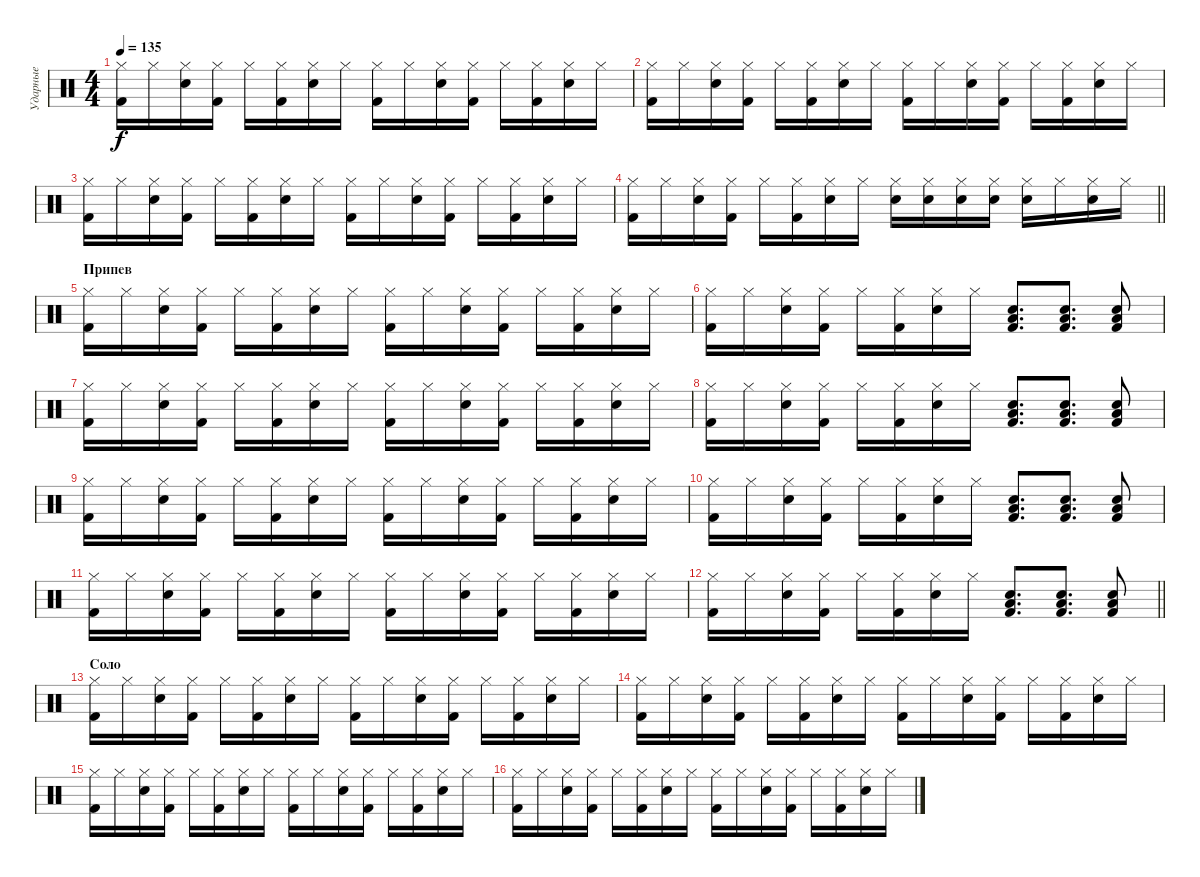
\track ("Ударные" "Ударные") {instrument percussion}
\staff {score}
\articulation defaults
\ts (4 4)
\tempo 135
\clef neutral
\ks c
("Hi-Hat (closed)" "Kick (hit) 2").16{dy f} "Hi-Hat (closed)".16 ("Hi-Hat (closed)" "Snare (hit) 2").16 ("Hi-Hat (closed)" "Kick (hit) 2").16 "Hi-Hat (closed)".16 ("Hi-Hat (closed)" "Kick (hit) 2").16 ("Hi-Hat (closed)" "Snare (hit) 2").16 "Hi-Hat (closed)".16 ("Hi-Hat (closed)" "Kick (hit) 2").16 "Hi-Hat (closed)".16 ("Hi-Hat (closed)" "Snare (hit) 2").16 ("Hi-Hat (closed)" "Kick (hit) 2").16 "Hi-Hat (closed)".16 ("Hi-Hat (closed)" "Kick (hit) 2").16 ("Hi-Hat (closed)" "Snare (hit) 2").16 "Hi-Hat (closed)".16 |
("Hi-Hat (closed)" "Kick (hit) 2").16 "Hi-Hat (closed)".16 ("Hi-Hat (closed)" "Snare (hit) 2").16 ("Hi-Hat (closed)" "Kick (hit) 2").16 "Hi-Hat (closed)".16 ("Hi-Hat (closed)" "Kick (hit) 2").16 ("Hi-Hat (closed)" "Snare (hit) 2").16 "Hi-Hat (closed)".16 ("Hi-Hat (closed)" "Kick (hit) 2").16 "Hi-Hat (closed)".16 ("Hi-Hat (closed)" "Snare (hit) 2").16 ("Hi-Hat (closed)" "Kick (hit) 2").16 "Hi-Hat (closed)".16 ("Hi-Hat (closed)" "Kick (hit) 2").16 ("Hi-Hat (closed)" "Snare (hit) 2").16 "Hi-Hat (closed)".16 |
("Hi-Hat (closed)" "Kick (hit) 2").16 "Hi-Hat (closed)".16 ("Hi-Hat (closed)" "Snare (hit) 2").16 ("Hi-Hat (closed)" "Kick (hit) 2").16 "Hi-Hat (closed)".16 ("Hi-Hat (closed)" "Kick (hit) 2").16 ("Hi-Hat (closed)" "Snare (hit) 2").16 "Hi-Hat (closed)".16 ("Hi-Hat (closed)" "Kick (hit) 2").16 "Hi-Hat (closed)".16 ("Hi-Hat (closed)" "Snare (hit) 2").16 ("Hi-Hat (closed)" "Kick (hit) 2").16 "Hi-Hat (closed)".16 ("Hi-Hat (closed)" "Kick (hit) 2").16 ("Hi-Hat (closed)" "Snare (hit) 2").16 "Hi-Hat (closed)".16 |
\barLineRight lightlight
("Hi-Hat (closed)" "Kick (hit) 2").16 "Hi-Hat (closed)".16 ("Hi-Hat (closed)" "Snare (hit) 2").16 ("Hi-Hat (closed)" "Kick (hit) 2").16 "Hi-Hat (closed)".16 ("Hi-Hat (closed)" "Kick (hit) 2").16 ("Hi-Hat (closed)" "Snare (hit) 2").16 "Hi-Hat (closed)".16 ("Hi-Hat (closed)" "Snare (hit) 2").16 ("Hi-Hat (closed)" "Snare (hit) 2").16 ("Hi-Hat (closed)" "Snare (hit) 2").16 ("Hi-Hat (closed)" "Snare (hit) 2").16 ("Hi-Hat (closed)" "Snare (hit) 2").16 "Hi-Hat (closed)".16 ("Hi-Hat (closed)" "Snare (hit) 2").16 "Hi-Hat (closed)".16 |
\section ("" "Припев")
("Hi-Hat (closed)" "Kick (hit) 2").16 "Hi-Hat (closed)".16 ("Hi-Hat (closed)" "Snare (hit) 2").16 ("Hi-Hat (closed)" "Kick (hit) 2").16 "Hi-Hat (closed)".16 ("Hi-Hat (closed)" "Kick (hit) 2").16 ("Hi-Hat (closed)" "Snare (hit) 2").16 "Hi-Hat (closed)".16 ("Hi-Hat (closed)" "Kick (hit) 2").16 "Hi-Hat (closed)".16 ("Hi-Hat (closed)" "Snare (hit) 2").16 ("Hi-Hat (closed)" "Kick (hit) 2").16 "Hi-Hat (closed)".16 ("Hi-Hat (closed)" "Kick (hit) 2").16 ("Hi-Hat (closed)" "Snare (hit) 2").16 "Hi-Hat (closed)".16 |
("Hi-Hat (closed)" "Kick (hit) 2").16 "Hi-Hat (closed)".16 ("Hi-Hat (closed)" "Snare (hit) 2").16 ("Hi-Hat (closed)" "Kick (hit) 2").16 "Hi-Hat (closed)".16 ("Hi-Hat (closed)" "Kick (hit) 2").16 ("Hi-Hat (closed)" "Snare (hit) 2").16 "Hi-Hat (closed)".16 ("Snare (hit) 2" "Low Tom (hit)" "Kick (hit) 2").8{d} ("Snare (hit) 2" "Low Tom (hit)" "Kick (hit) 2").8{d} ("Snare (hit) 2" "Low Tom (hit)" "Kick (hit) 2").8 |
("Hi-Hat (closed)" "Kick (hit) 2").16 "Hi-Hat (closed)".16 ("Hi-Hat (closed)" "Snare (hit) 2").16 ("Hi-Hat (closed)" "Kick (hit) 2").16 "Hi-Hat (closed)".16 ("Hi-Hat (closed)" "Kick (hit) 2").16 ("Hi-Hat (closed)" "Snare (hit) 2").16 "Hi-Hat (closed)".16 ("Hi-Hat (closed)" "Kick (hit) 2").16 "Hi-Hat (closed)".16 ("Hi-Hat (closed)" "Snare (hit) 2").16 ("Hi-Hat (closed)" "Kick (hit) 2").16 "Hi-Hat (closed)".16 ("Hi-Hat (closed)" "Kick (hit) 2").16 ("Hi-Hat (closed)" "Snare (hit) 2").16 "Hi-Hat (closed)".16 |
("Hi-Hat (closed)" "Kick (hit) 2").16 "Hi-Hat (closed)".16 ("Hi-Hat (closed)" "Snare (hit) 2").16 ("Hi-Hat (closed)" "Kick (hit) 2").16 "Hi-Hat (closed)".16 ("Hi-Hat (closed)" "Kick (hit) 2").16 ("Hi-Hat (closed)" "Snare (hit) 2").16 "Hi-Hat (closed)".16 ("Snare (hit) 2" "Low Tom (hit)" "Kick (hit) 2").8{d} ("Snare (hit) 2" "Low Tom (hit)" "Kick (hit) 2").8{d} ("Snare (hit) 2" "Low Tom (hit)" "Kick (hit) 2").8 |
("Hi-Hat (closed)" "Kick (hit) 2").16 "Hi-Hat (closed)".16 ("Hi-Hat (closed)" "Snare (hit) 2").16 ("Hi-Hat (closed)" "Kick (hit) 2").16 "Hi-Hat (closed)".16 ("Hi-Hat (closed)" "Kick (hit) 2").16 ("Hi-Hat (closed)" "Snare (hit) 2").16 "Hi-Hat (closed)".16 ("Hi-Hat (closed)" "Kick (hit) 2").16 "Hi-Hat (closed)".16 ("Hi-Hat (closed)" "Snare (hit) 2").16 ("Hi-Hat (closed)" "Kick (hit) 2").16 "Hi-Hat (closed)".16 ("Hi-Hat (closed)" "Kick (hit) 2").16 ("Hi-Hat (closed)" "Snare (hit) 2").16 "Hi-Hat (closed)".16 |
("Hi-Hat (closed)" "Kick (hit) 2").16 "Hi-Hat (closed)".16 ("Hi-Hat (closed)" "Snare (hit) 2").16 ("Hi-Hat (closed)" "Kick (hit) 2").16 "Hi-Hat (closed)".16 ("Hi-Hat (closed)" "Kick (hit) 2").16 ("Hi-Hat (closed)" "Snare (hit) 2").16 "Hi-Hat (closed)".16 ("Snare (hit) 2" "Low Tom (hit)" "Kick (hit) 2").8{d} ("Snare (hit) 2" "Low Tom (hit)" "Kick (hit) 2").8{d} ("Snare (hit) 2" "Low Tom (hit)" "Kick (hit) 2").8 |
("Hi-Hat (closed)" "Kick (hit) 2").16 "Hi-Hat (closed)".16 ("Hi-Hat (closed)" "Snare (hit) 2").16 ("Hi-Hat (closed)" "Kick (hit) 2").16 "Hi-Hat (closed)".16 ("Hi-Hat (closed)" "Kick (hit) 2").16 ("Hi-Hat (closed)" "Snare (hit) 2").16 "Hi-Hat (closed)".16 ("Hi-Hat (closed)" "Kick (hit) 2").16 "Hi-Hat (closed)".16 ("Hi-Hat (closed)" "Snare (hit) 2").16 ("Hi-Hat (closed)" "Kick (hit) 2").16 "Hi-Hat (closed)".16 ("Hi-Hat (closed)" "Kick (hit) 2").16 ("Hi-Hat (closed)" "Snare (hit) 2").16 "Hi-Hat (closed)".16 |
\barLineRight lightlight
("Hi-Hat (closed)" "Kick (hit) 2").16 "Hi-Hat (closed)".16 ("Hi-Hat (closed)" "Snare (hit) 2").16 ("Hi-Hat (closed)" "Kick (hit) 2").16 "Hi-Hat (closed)".16 ("Hi-Hat (closed)" "Kick (hit) 2").16 ("Hi-Hat (closed)" "Snare (hit) 2").16 "Hi-Hat (closed)".16 ("Snare (hit) 2" "Low Tom (hit)" "Kick (hit) 2").8{d} ("Snare (hit) 2" "Low Tom (hit)" "Kick (hit) 2").8{d} ("Snare (hit) 2" "Low Tom (hit)" "Kick (hit) 2").8 |
\section ("" "Соло")
("Hi-Hat (closed)" "Kick (hit) 2").16 "Hi-Hat (closed)".16 ("Hi-Hat (closed)" "Snare (hit) 2").16 ("Hi-Hat (closed)" "Kick (hit) 2").16 "Hi-Hat (closed)".16 ("Hi-Hat (closed)" "Kick (hit) 2").16 ("Hi-Hat (closed)" "Snare (hit) 2").16 "Hi-Hat (closed)".16 ("Hi-Hat (closed)" "Kick (hit) 2").16 "Hi-Hat (closed)".16 ("Hi-Hat (closed)" "Snare (hit) 2").16 ("Hi-Hat (closed)" "Kick (hit) 2").16 "Hi-Hat (closed)".16 ("Hi-Hat (closed)" "Kick (hit) 2").16 ("Hi-Hat (closed)" "Snare (hit) 2").16 "Hi-Hat (closed)".16 |
("Hi-Hat (closed)" "Kick (hit) 2").16 "Hi-Hat (closed)".16 ("Hi-Hat (closed)" "Snare (hit) 2").16 ("Hi-Hat (closed)" "Kick (hit) 2").16 "Hi-Hat (closed)".16 ("Hi-Hat (closed)" "Kick (hit) 2").16 ("Hi-Hat (closed)" "Snare (hit) 2").16 "Hi-Hat (closed)".16 ("Hi-Hat (closed)" "Kick (hit) 2").16 "Hi-Hat (closed)".16 ("Hi-Hat (closed)" "Snare (hit) 2").16 ("Hi-Hat (closed)" "Kick (hit) 2").16 "Hi-Hat (closed)".16 ("Hi-Hat (closed)" "Kick (hit) 2").16 ("Hi-Hat (closed)" "Snare (hit) 2").16 "Hi-Hat (closed)".16 |
("Hi-Hat (closed)" "Kick (hit) 2").16 "Hi-Hat (closed)".16 ("Hi-Hat (closed)" "Snare (hit) 2").16 ("Hi-Hat (closed)" "Kick (hit) 2").16 "Hi-Hat (closed)".16 ("Hi-Hat (closed)" "Kick (hit) 2").16 ("Hi-Hat (closed)" "Snare (hit) 2").16 "Hi-Hat (closed)".16 ("Hi-Hat (closed)" "Kick (hit) 2").16 "Hi-Hat (closed)".16 ("Hi-Hat (closed)" "Snare (hit) 2").16 ("Hi-Hat (closed)" "Kick (hit) 2").16 "Hi-Hat (closed)".16 ("Hi-Hat (closed)" "Kick (hit) 2").16 ("Hi-Hat (closed)" "Snare (hit) 2").16 "Hi-Hat (closed)".16 |
("Hi-Hat (closed)" "Kick (hit) 2").16 "Hi-Hat (closed)".16 ("Hi-Hat (closed)" "Snare (hit) 2").16 ("Hi-Hat (closed)" "Kick (hit) 2").16 "Hi-Hat (closed)".16 ("Hi-Hat (closed)" "Kick (hit) 2").16 ("Hi-Hat (closed)" "Snare (hit) 2").16 "Hi-Hat (closed)".16 ("Hi-Hat (closed)" "Kick (hit) 2").16 "Hi-Hat (closed)".16 ("Hi-Hat (closed)" "Snare (hit) 2").16 ("Hi-Hat (closed)" "Kick (hit) 2").16 "Hi-Hat (closed)".16 ("Hi-Hat (closed)" "Kick (hit) 2").16 ("Hi-Hat (closed)" "Snare (hit) 2").16 "Hi-Hat (closed)".16
